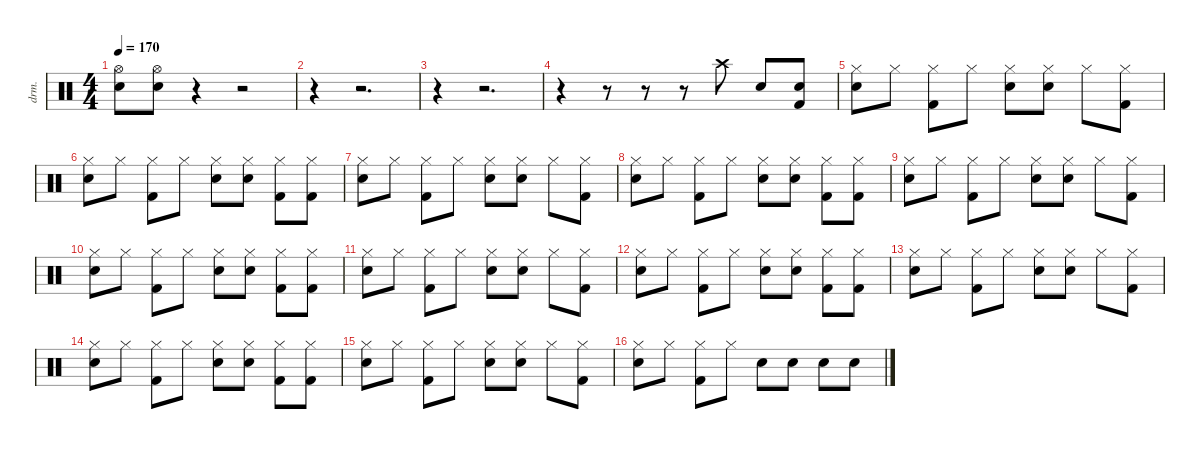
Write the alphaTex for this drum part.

\defaultSystemsLayout 4
\hideDynamics
\bracketExtendMode nobrackets
\otherSystemsTrackNameOrientation horizontal
\track ("Percussions" "drm.") {instrument percussion}
\staff {score}
\articulation defaults
\ts (4 4)
\tempo 170
\clef neutral
\ks c
("Hi-Hat (open)" "Snare (hit) 2").8{dy f beam Down} ("Hi-Hat (open)" "Snare (hit) 2").8{beam Down} r.4{beam Down} r.2{beam Down} |
r.4{beam Down} r.2{d beam Down} |
r.4{beam Down} r.2{d beam Down} |
r.4{beam Down} r.8{beam Down} r.8{beam Down} r.8{beam Down} "Crash high (hit)".8{beam Down} "Snare (hit) 2".8{beam Up} ("Snare (hit) 2" "Kick (hit) 2").8{beam Up} |
("Hi-Hat (closed)" "Snare (hit) 2").8{beam Down} "Hi-Hat (closed)".8{beam Down} ("Hi-Hat (closed)" "Kick (hit) 2").8{beam Down} "Hi-Hat (closed)".8{beam Down} ("Hi-Hat (closed)" "Snare (hit) 2").8{beam Down} ("Hi-Hat (closed)" "Snare (hit) 2").8{beam Down} "Hi-Hat (closed)".8{beam Down} ("Hi-Hat (closed)" "Kick (hit) 2").8{beam Down} |
("Hi-Hat (closed)" "Snare (hit) 2").8{beam Down} "Hi-Hat (closed)".8{beam Down} ("Hi-Hat (closed)" "Kick (hit) 2").8{beam Down} "Hi-Hat (closed)".8{beam Down} ("Hi-Hat (closed)" "Snare (hit) 2").8{beam Down} ("Hi-Hat (closed)" "Snare (hit) 2").8{beam Down} ("Hi-Hat (closed)" "Kick (hit) 2").8{beam Down} ("Hi-Hat (closed)" "Kick (hit) 2").8{beam Down} |
("Hi-Hat (closed)" "Snare (hit) 2").8{beam Down} "Hi-Hat (closed)".8{beam Down} ("Hi-Hat (closed)" "Kick (hit) 2").8{beam Down} "Hi-Hat (closed)".8{beam Down} ("Hi-Hat (closed)" "Snare (hit) 2").8{beam Down} ("Hi-Hat (closed)" "Snare (hit) 2").8{beam Down} "Hi-Hat (closed)".8{beam Down} ("Hi-Hat (closed)" "Kick (hit) 2").8{beam Down} |
("Hi-Hat (closed)" "Snare (hit) 2").8{beam Down} "Hi-Hat (closed)".8{beam Down} ("Hi-Hat (closed)" "Kick (hit) 2").8{beam Down} "Hi-Hat (closed)".8{beam Down} ("Hi-Hat (closed)" "Snare (hit) 2").8{beam Down} ("Hi-Hat (closed)" "Snare (hit) 2").8{beam Down} ("Hi-Hat (closed)" "Kick (hit) 2").8{beam Down} ("Hi-Hat (closed)" "Kick (hit) 2").8{beam Down} |
("Hi-Hat (closed)" "Snare (hit) 2").8{beam Down} "Hi-Hat (closed)".8{beam Down} ("Hi-Hat (closed)" "Kick (hit) 2").8{beam Down} "Hi-Hat (closed)".8{beam Down} ("Hi-Hat (closed)" "Snare (hit) 2").8{beam Down} ("Hi-Hat (closed)" "Snare (hit) 2").8{beam Down} "Hi-Hat (closed)".8{beam Down} ("Hi-Hat (closed)" "Kick (hit) 2").8{beam Down} |
("Hi-Hat (closed)" "Snare (hit) 2").8{beam Down} "Hi-Hat (closed)".8{beam Down} ("Hi-Hat (closed)" "Kick (hit) 2").8{beam Down} "Hi-Hat (closed)".8{beam Down} ("Hi-Hat (closed)" "Snare (hit) 2").8{beam Down} ("Hi-Hat (closed)" "Snare (hit) 2").8{beam Down} ("Hi-Hat (closed)" "Kick (hit) 2").8{beam Down} ("Hi-Hat (closed)" "Kick (hit) 2").8{beam Down} |
("Hi-Hat (closed)" "Snare (hit) 2").8{beam Down} "Hi-Hat (closed)".8{beam Down} ("Hi-Hat (closed)" "Kick (hit) 2").8{beam Down} "Hi-Hat (closed)".8{beam Down} ("Hi-Hat (closed)" "Snare (hit) 2").8{beam Down} ("Hi-Hat (closed)" "Snare (hit) 2").8{beam Down} "Hi-Hat (closed)".8{beam Down} ("Hi-Hat (closed)" "Kick (hit) 2").8{beam Down} |
("Hi-Hat (closed)" "Snare (hit) 2").8{beam Down} "Hi-Hat (closed)".8{beam Down} ("Hi-Hat (closed)" "Kick (hit) 2").8{beam Down} "Hi-Hat (closed)".8{beam Down} ("Hi-Hat (closed)" "Snare (hit) 2").8{beam Down} ("Hi-Hat (closed)" "Snare (hit) 2").8{beam Down} ("Hi-Hat (closed)" "Kick (hit) 2").8{beam Down} ("Hi-Hat (closed)" "Kick (hit) 2").8{beam Down} |
("Hi-Hat (closed)" "Snare (hit) 2").8{beam Down} "Hi-Hat (closed)".8{beam Down} ("Hi-Hat (closed)" "Kick (hit) 2").8{beam Down} "Hi-Hat (closed)".8{beam Down} ("Hi-Hat (closed)" "Snare (hit) 2").8{beam Down} ("Hi-Hat (closed)" "Snare (hit) 2").8{beam Down} "Hi-Hat (closed)".8{beam Down} ("Hi-Hat (closed)" "Kick (hit) 2").8{beam Down} |
("Hi-Hat (closed)" "Snare (hit) 2").8{beam Down} "Hi-Hat (closed)".8{beam Down} ("Hi-Hat (closed)" "Kick (hit) 2").8{beam Down} "Hi-Hat (closed)".8{beam Down} ("Hi-Hat (closed)" "Snare (hit) 2").8{beam Down} ("Hi-Hat (closed)" "Snare (hit) 2").8{beam Down} ("Hi-Hat (closed)" "Kick (hit) 2").8{beam Down} ("Hi-Hat (closed)" "Kick (hit) 2").8{beam Down} |
("Hi-Hat (closed)" "Snare (hit) 2").8{beam Down} "Hi-Hat (closed)".8{beam Down} ("Hi-Hat (closed)" "Kick (hit) 2").8{beam Down} "Hi-Hat (closed)".8{beam Down} ("Hi-Hat (closed)" "Snare (hit) 2").8{beam Down} ("Hi-Hat (closed)" "Snare (hit) 2").8{beam Down} "Hi-Hat (closed)".8{beam Down} ("Hi-Hat (closed)" "Kick (hit) 2").8{beam Down} |
("Hi-Hat (closed)" "Snare (hit) 2").8{beam Down} "Hi-Hat (closed)".8{beam Down} ("Hi-Hat (closed)" "Kick (hit) 2").8{beam Down} "Hi-Hat (closed)".8{beam Down} "Snare (hit) 2".8{beam Down} "Snare (hit) 2".8{beam Down} "Snare (hit) 2".8{beam Down} "Snare (hit) 2".8{beam Down}
